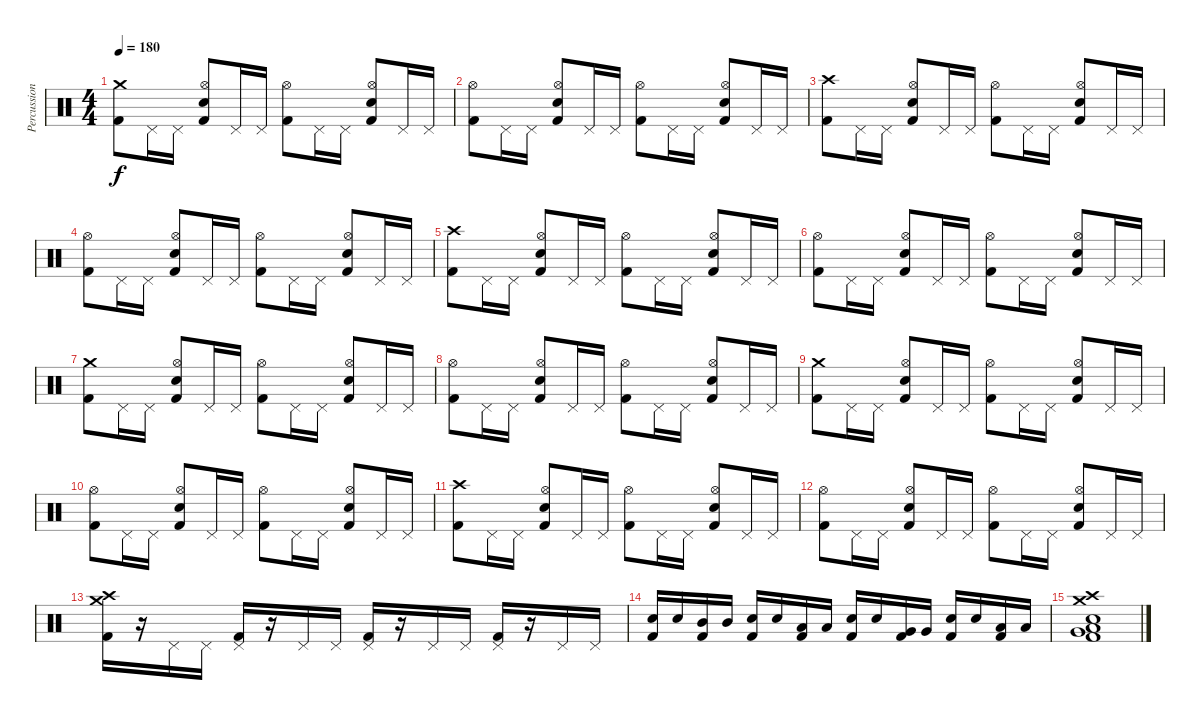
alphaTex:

\track ("Percussion" "Percussion") {instrument percussion}
\staff {score}
\articulation defaults
\ts (4 4)
\tempo 180
\clef neutral
\ks c
("Crash medium (hit)" "Kick (hit) 2").8{dy f} "Pedal Hi-Hat (hit)".16 "Pedal Hi-Hat (hit)".16 ("Hi-Hat (open)" "Electric Snare (hit)" "Kick (hit) 2").8 "Pedal Hi-Hat (hit)".16 "Pedal Hi-Hat (hit)".16 ("Hi-Hat (open)" "Kick (hit) 2").8 "Pedal Hi-Hat (hit)".16 "Pedal Hi-Hat (hit)".16 ("Hi-Hat (open)" "Electric Snare (hit)" "Kick (hit) 2").8 "Pedal Hi-Hat (hit)".16 "Pedal Hi-Hat (hit)".16 |
("Hi-Hat (open)" "Kick (hit) 2").8 "Pedal Hi-Hat (hit)".16 "Pedal Hi-Hat (hit)".16 ("Hi-Hat (open)" "Electric Snare (hit)" "Kick (hit) 2").8 "Pedal Hi-Hat (hit)".16 "Pedal Hi-Hat (hit)".16 ("Hi-Hat (open)" "Kick (hit) 2").8 "Pedal Hi-Hat (hit)".16 "Pedal Hi-Hat (hit)".16 ("Hi-Hat (open)" "Electric Snare (hit)" "Kick (hit) 2").8 "Pedal Hi-Hat (hit)".16 "Pedal Hi-Hat (hit)".16 |
("Crash high (hit)" "Kick (hit) 2").8 "Pedal Hi-Hat (hit)".16 "Pedal Hi-Hat (hit)".16 ("Hi-Hat (open)" "Electric Snare (hit)" "Kick (hit) 2").8 "Pedal Hi-Hat (hit)".16 "Pedal Hi-Hat (hit)".16 ("Hi-Hat (open)" "Kick (hit) 2").8 "Pedal Hi-Hat (hit)".16 "Pedal Hi-Hat (hit)".16 ("Hi-Hat (open)" "Electric Snare (hit)" "Kick (hit) 2").8 "Pedal Hi-Hat (hit)".16 "Pedal Hi-Hat (hit)".16 |
("Hi-Hat (open)" "Kick (hit) 2").8 "Pedal Hi-Hat (hit)".16 "Pedal Hi-Hat (hit)".16 ("Hi-Hat (open)" "Electric Snare (hit)" "Kick (hit) 2").8 "Pedal Hi-Hat (hit)".16 "Pedal Hi-Hat (hit)".16 ("Hi-Hat (open)" "Kick (hit) 2").8 "Pedal Hi-Hat (hit)".16 "Pedal Hi-Hat (hit)".16 ("Hi-Hat (open)" "Electric Snare (hit)" "Kick (hit) 2").8 "Pedal Hi-Hat (hit)".16 "Pedal Hi-Hat (hit)".16 |
("Crash high (hit)" "Kick (hit) 2").8 "Pedal Hi-Hat (hit)".16 "Pedal Hi-Hat (hit)".16 ("Hi-Hat (open)" "Electric Snare (hit)" "Kick (hit) 2").8 "Pedal Hi-Hat (hit)".16 "Pedal Hi-Hat (hit)".16 ("Hi-Hat (open)" "Kick (hit) 2").8 "Pedal Hi-Hat (hit)".16 "Pedal Hi-Hat (hit)".16 ("Hi-Hat (open)" "Electric Snare (hit)" "Kick (hit) 2").8 "Pedal Hi-Hat (hit)".16 "Pedal Hi-Hat (hit)".16 |
("Hi-Hat (open)" "Kick (hit) 2").8 "Pedal Hi-Hat (hit)".16 "Pedal Hi-Hat (hit)".16 ("Hi-Hat (open)" "Electric Snare (hit)" "Kick (hit) 2").8 "Pedal Hi-Hat (hit)".16 "Pedal Hi-Hat (hit)".16 ("Hi-Hat (open)" "Kick (hit) 2").8 "Pedal Hi-Hat (hit)".16 "Pedal Hi-Hat (hit)".16 ("Hi-Hat (open)" "Electric Snare (hit)" "Kick (hit) 2").8 "Pedal Hi-Hat (hit)".16 "Pedal Hi-Hat (hit)".16 |
("Crash medium (hit)" "Kick (hit) 2").8 "Pedal Hi-Hat (hit)".16 "Pedal Hi-Hat (hit)".16 ("Hi-Hat (open)" "Electric Snare (hit)" "Kick (hit) 2").8 "Pedal Hi-Hat (hit)".16 "Pedal Hi-Hat (hit)".16 ("Hi-Hat (open)" "Kick (hit) 2").8 "Pedal Hi-Hat (hit)".16 "Pedal Hi-Hat (hit)".16 ("Hi-Hat (open)" "Electric Snare (hit)" "Kick (hit) 2").8 "Pedal Hi-Hat (hit)".16 "Pedal Hi-Hat (hit)".16 |
("Hi-Hat (open)" "Kick (hit) 2").8 "Pedal Hi-Hat (hit)".16 "Pedal Hi-Hat (hit)".16 ("Hi-Hat (open)" "Electric Snare (hit)" "Kick (hit) 2").8 "Pedal Hi-Hat (hit)".16 "Pedal Hi-Hat (hit)".16 ("Hi-Hat (open)" "Kick (hit) 2").8 "Pedal Hi-Hat (hit)".16 "Pedal Hi-Hat (hit)".16 ("Hi-Hat (open)" "Electric Snare (hit)" "Kick (hit) 2").8 "Pedal Hi-Hat (hit)".16 "Pedal Hi-Hat (hit)".16 |
("Crash medium (hit)" "Kick (hit) 2").8 "Pedal Hi-Hat (hit)".16 "Pedal Hi-Hat (hit)".16 ("Hi-Hat (open)" "Electric Snare (hit)" "Kick (hit) 2").8 "Pedal Hi-Hat (hit)".16 "Pedal Hi-Hat (hit)".16 ("Hi-Hat (open)" "Kick (hit) 2").8 "Pedal Hi-Hat (hit)".16 "Pedal Hi-Hat (hit)".16 ("Hi-Hat (open)" "Electric Snare (hit)" "Kick (hit) 2").8 "Pedal Hi-Hat (hit)".16 "Pedal Hi-Hat (hit)".16 |
("Hi-Hat (open)" "Kick (hit) 2").8 "Pedal Hi-Hat (hit)".16 "Pedal Hi-Hat (hit)".16 ("Hi-Hat (open)" "Electric Snare (hit)" "Kick (hit) 2").8 "Pedal Hi-Hat (hit)".16 "Pedal Hi-Hat (hit)".16 ("Hi-Hat (open)" "Kick (hit) 2").8 "Pedal Hi-Hat (hit)".16 "Pedal Hi-Hat (hit)".16 ("Hi-Hat (open)" "Electric Snare (hit)" "Kick (hit) 2").8 "Pedal Hi-Hat (hit)".16 "Pedal Hi-Hat (hit)".16 |
("Crash high (hit)" "Kick (hit) 2").8 "Pedal Hi-Hat (hit)".16 "Pedal Hi-Hat (hit)".16 ("Hi-Hat (open)" "Electric Snare (hit)" "Kick (hit) 2").8 "Pedal Hi-Hat (hit)".16 "Pedal Hi-Hat (hit)".16 ("Hi-Hat (open)" "Kick (hit) 2").8 "Pedal Hi-Hat (hit)".16 "Pedal Hi-Hat (hit)".16 ("Hi-Hat (open)" "Electric Snare (hit)" "Kick (hit) 2").8 "Pedal Hi-Hat (hit)".16 "Pedal Hi-Hat (hit)".16 |
("Hi-Hat (open)" "Kick (hit) 2").8 "Pedal Hi-Hat (hit)".16 "Pedal Hi-Hat (hit)".16 ("Hi-Hat (open)" "Electric Snare (hit)" "Kick (hit) 2").8 "Pedal Hi-Hat (hit)".16 "Pedal Hi-Hat (hit)".16 ("Hi-Hat (open)" "Kick (hit) 2").8 "Pedal Hi-Hat (hit)".16 "Pedal Hi-Hat (hit)".16 ("Hi-Hat (open)" "Electric Snare (hit)" "Kick (hit) 2").8 "Pedal Hi-Hat (hit)".16 "Pedal Hi-Hat (hit)".16 |
("Crash medium (hit)" "Crash high (hit)" "Kick (hit) 2").16 r.16 "Pedal Hi-Hat (hit)".16 "Pedal Hi-Hat (hit)".16 ("Pedal Hi-Hat (hit)" "Kick (hit) 2").16 r.16 "Pedal Hi-Hat (hit)".16 "Pedal Hi-Hat (hit)".16 ("Pedal Hi-Hat (hit)" "Kick (hit) 2").16 r.16 "Pedal Hi-Hat (hit)".16 "Pedal Hi-Hat (hit)".16 ("Pedal Hi-Hat (hit)" "Kick (hit) 2").16 r.16 "Pedal Hi-Hat (hit)".16 "Pedal Hi-Hat (hit)".16 |
("Electric Snare (hit)" "Kick (hit) 2").16 "Electric Snare (hit)".16 ("Mid Tom (hit)" "Kick (hit) 2").16 "Mid Tom (hit)".16 ("Electric Snare (hit)" "Kick (hit) 2").16 "Electric Snare (hit)".16 ("Low Tom (hit)" "Kick (hit) 2").16 "Low Tom (hit)".16 ("Electric Snare (hit)" "Kick (hit) 2").16 "Electric Snare (hit)".16 ("Very Low Tom (hit)" "Kick (hit) 2").16 "Very Low Tom (hit)".16 ("Electric Snare (hit)" "Kick (hit) 2").16 "Electric Snare (hit)".16 ("Low Floor Tom (hit)" "Kick (hit) 2").16 "Low Floor Tom (hit)".16 |
("Crash medium (hit)" "Crash high (hit)" "Very Low Tom (hit)" "Low Floor Tom (hit)" "Electric Snare (hit)" "Kick (hit) 2").1
